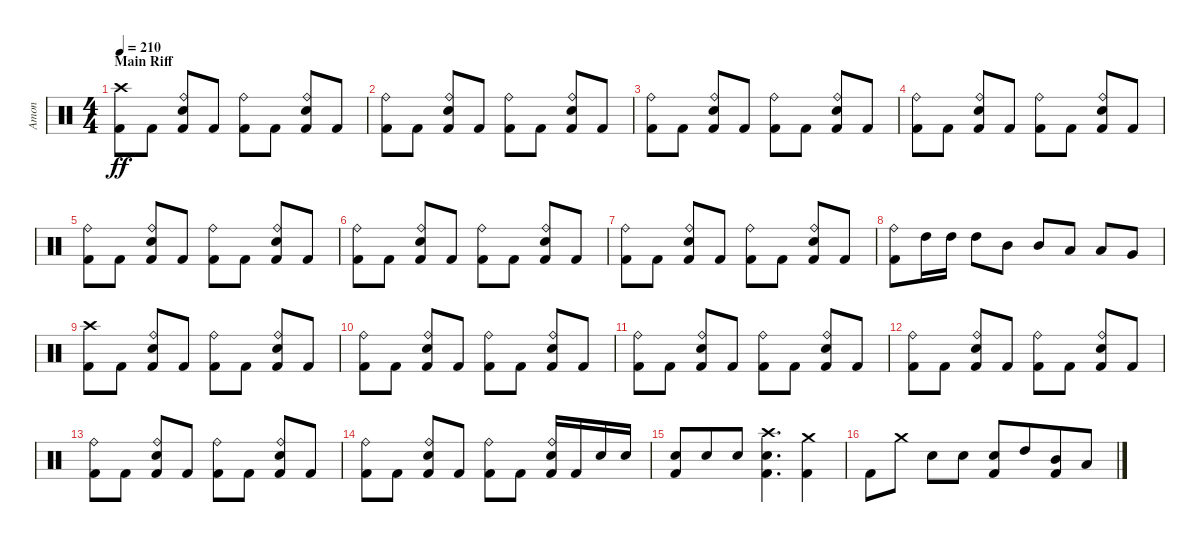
\track ("Amon" "Amon") {instrument percussion bank 177}
\staff {score}
\articulation defaults
\ts (4 4)
\section ("" "Main Riff")
\tempo 210
\clef neutral
\ks c
("Crash high (hit)" "Kick (hit) 2").8{dy ff} "Kick (hit) 2".8 ("Ride (bell)" "Snare (hit) 2" "Kick (hit) 2").8 "Kick (hit) 2".8 ("Ride (bell)" "Kick (hit) 2").8 "Kick (hit) 2".8 ("Ride (bell)" "Snare (hit) 2" "Kick (hit) 2").8 "Kick (hit) 2".8 |
("Ride (bell)" "Kick (hit) 2").8 "Kick (hit) 2".8 ("Ride (bell)" "Snare (hit) 2" "Kick (hit) 2").8 "Kick (hit) 2".8 ("Ride (bell)" "Kick (hit) 2").8 "Kick (hit) 2".8 ("Ride (bell)" "Snare (hit) 2" "Kick (hit) 2").8 "Kick (hit) 2".8 |
("Ride (bell)" "Kick (hit) 2").8 "Kick (hit) 2".8 ("Ride (bell)" "Snare (hit) 2" "Kick (hit) 2").8 "Kick (hit) 2".8 ("Ride (bell)" "Kick (hit) 2").8 "Kick (hit) 2".8 ("Ride (bell)" "Snare (hit) 2" "Kick (hit) 2").8 "Kick (hit) 2".8 |
("Ride (bell)" "Kick (hit) 2").8 "Kick (hit) 2".8 ("Ride (bell)" "Snare (hit) 2" "Kick (hit) 2").8 "Kick (hit) 2".8 ("Ride (bell)" "Kick (hit) 2").8 "Kick (hit) 2".8 ("Ride (bell)" "Snare (hit) 2" "Kick (hit) 2").8 "Kick (hit) 2".8 |
("Ride (bell)" "Kick (hit) 2").8 "Kick (hit) 2".8 ("Ride (bell)" "Snare (hit) 2" "Kick (hit) 2").8 "Kick (hit) 2".8 ("Ride (bell)" "Kick (hit) 2").8 "Kick (hit) 2".8 ("Ride (bell)" "Snare (hit) 2" "Kick (hit) 2").8 "Kick (hit) 2".8 |
("Ride (bell)" "Kick (hit) 2").8 "Kick (hit) 2".8 ("Ride (bell)" "Snare (hit) 2" "Kick (hit) 2").8 "Kick (hit) 2".8 ("Ride (bell)" "Kick (hit) 2").8 "Kick (hit) 2".8 ("Ride (bell)" "Snare (hit) 2" "Kick (hit) 2").8 "Kick (hit) 2".8 |
("Ride (bell)" "Kick (hit) 2").8 "Kick (hit) 2".8 ("Ride (bell)" "Snare (hit) 2" "Kick (hit) 2").8 "Kick (hit) 2".8 ("Ride (bell)" "Kick (hit) 2").8 "Kick (hit) 2".8 ("Ride (bell)" "Snare (hit) 2" "Kick (hit) 2").8 "Kick (hit) 2".8 |
("Ride (bell)" "Kick (hit) 2").8{beam merge} "High Tom (hit)".16 "High Tom (hit)".16 "High Tom (hit)".8 "Mid Tom (hit)".8 "Mid Tom (hit)".8 "Low Tom (hit)".8 "Low Tom (hit)".8 "Very Low Tom (hit)".8 |
("Crash high (hit)" "Kick (hit) 2").8 "Kick (hit) 2".8 ("Ride (bell)" "Snare (hit) 2" "Kick (hit) 2").8 "Kick (hit) 2".8 ("Ride (bell)" "Kick (hit) 2").8 "Kick (hit) 2".8 ("Ride (bell)" "Snare (hit) 2" "Kick (hit) 2").8 "Kick (hit) 2".8 |
("Ride (bell)" "Kick (hit) 2").8 "Kick (hit) 2".8 ("Ride (bell)" "Snare (hit) 2" "Kick (hit) 2").8 "Kick (hit) 2".8 ("Ride (bell)" "Kick (hit) 2").8 "Kick (hit) 2".8 ("Ride (bell)" "Snare (hit) 2" "Kick (hit) 2").8 "Kick (hit) 2".8 |
("Ride (bell)" "Kick (hit) 2").8 "Kick (hit) 2".8 ("Ride (bell)" "Snare (hit) 2" "Kick (hit) 2").8 "Kick (hit) 2".8 ("Ride (bell)" "Kick (hit) 2").8 "Kick (hit) 2".8 ("Ride (bell)" "Snare (hit) 2" "Kick (hit) 2").8 "Kick (hit) 2".8 |
("Ride (bell)" "Kick (hit) 2").8 "Kick (hit) 2".8 ("Ride (bell)" "Snare (hit) 2" "Kick (hit) 2").8 "Kick (hit) 2".8 ("Ride (bell)" "Kick (hit) 2").8 "Kick (hit) 2".8 ("Ride (bell)" "Snare (hit) 2" "Kick (hit) 2").8 "Kick (hit) 2".8 |
("Ride (bell)" "Kick (hit) 2").8 "Kick (hit) 2".8 ("Ride (bell)" "Snare (hit) 2" "Kick (hit) 2").8 "Kick (hit) 2".8 ("Ride (bell)" "Kick (hit) 2").8 "Kick (hit) 2".8 ("Ride (bell)" "Snare (hit) 2" "Kick (hit) 2").8 "Kick (hit) 2".8 |
("Ride (bell)" "Kick (hit) 2").8 "Kick (hit) 2".8 ("Ride (bell)" "Snare (hit) 2" "Kick (hit) 2").8 "Kick (hit) 2".8 ("Ride (bell)" "Kick (hit) 2").8 "Kick (hit) 2".8 ("Ride (bell)" "Snare (hit) 2" "Kick (hit) 2").16 "Kick (hit) 2".16 "Snare (hit) 2".16 "Snare (hit) 2".16 |
("Snare (hit) 2" "Kick (hit) 2").8 "Snare (hit) 2".8{beam merge} "Snare (hit) 2".8 ("Crash high (hit)" "Snare (hit) 2" "Kick (hit) 2").4{d beam merge} ("Crash medium (hit)" "Kick (hit) 2").4 |
"Kick (hit) 2".8 "Crash medium (hit)".8 "Snare (hit) 2".8 "Snare (hit) 2".8 ("Snare (hit) 2" "Kick (hit) 2").8{beam merge} "High Tom (hit)".8{beam merge} ("Mid Tom (hit)" "Kick (hit) 2").8 "Low Tom (hit)".8
